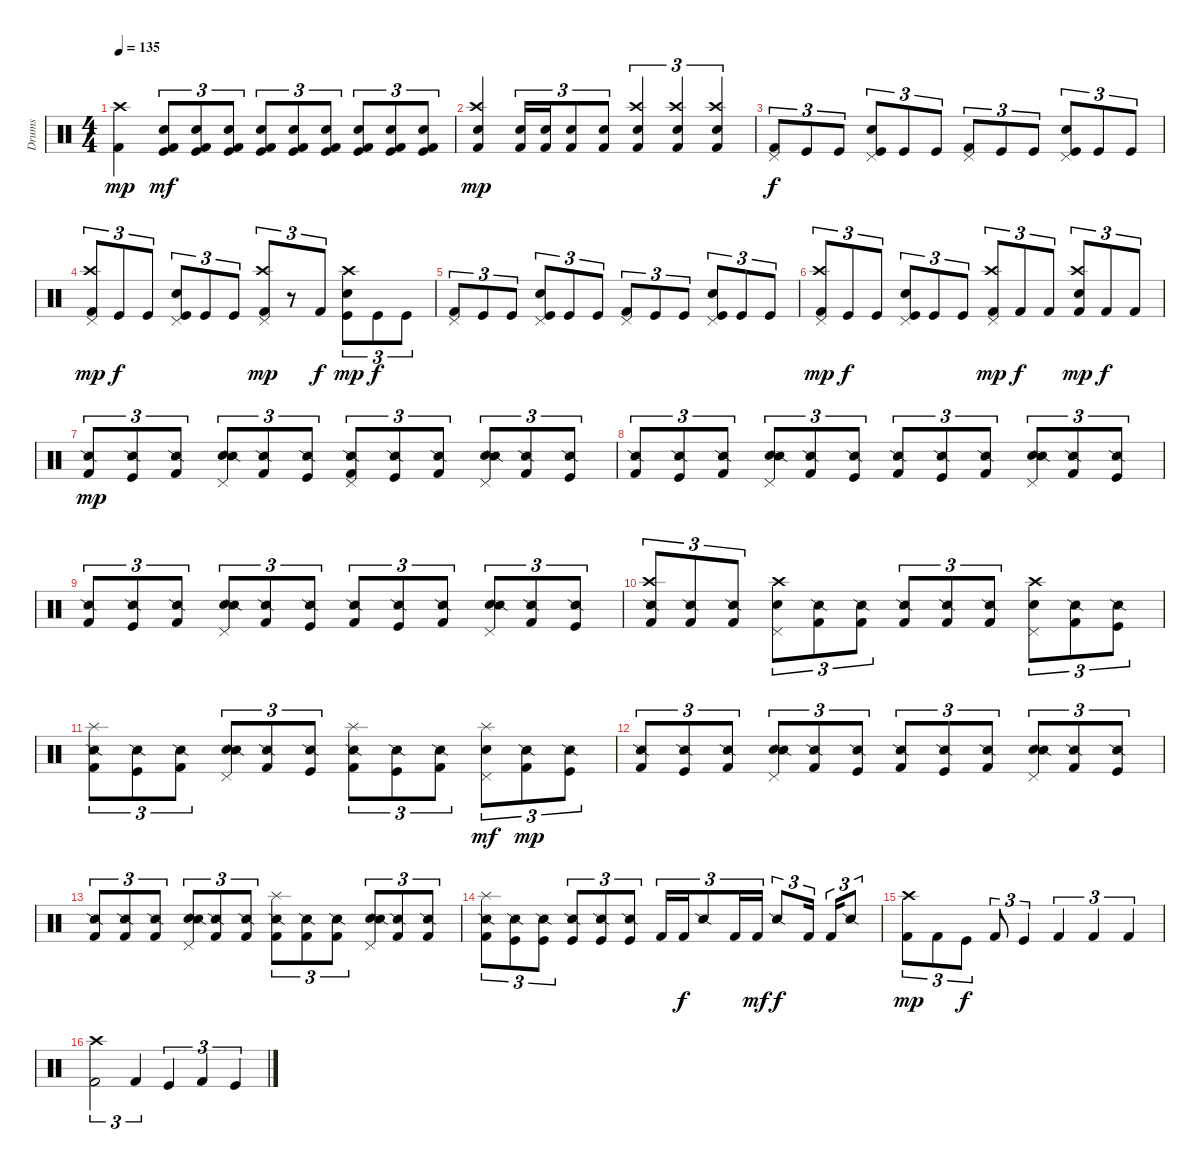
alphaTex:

\track ("Drums" "Drums") {instrument percussion}
\staff {score}
\articulation defaults
\ts (4 4)
\tempo 135
\clef neutral
\ks c
("Kick (hit) 2" "Crash high (hit)").4{dy mp} ("Kick (hit) 2" "Kick (hit)" "Electric Snare (hit)").8{tu (3 2) dy mf} ("Kick (hit) 2" "Kick (hit)" "Electric Snare (hit)").8{tu (3 2)} ("Kick (hit) 2" "Kick (hit)" "Electric Snare (hit)").8{tu (3 2)} ("Kick (hit) 2" "Kick (hit)" "Electric Snare (hit)").8{tu (3 2)} ("Kick (hit) 2" "Kick (hit)" "Electric Snare (hit)").8{tu (3 2)} ("Kick (hit) 2" "Kick (hit)" "Electric Snare (hit)").8{tu (3 2)} ("Kick (hit) 2" "Kick (hit)" "Electric Snare (hit)").8{tu (3 2)} ("Kick (hit) 2" "Kick (hit)" "Electric Snare (hit)").8{tu (3 2)} ("Kick (hit) 2" "Kick (hit)" "Electric Snare (hit)").8{tu (3 2)} |
("Kick (hit) 2" "Crash high (hit)" "Electric Snare (hit)").4{dy mp} ("Kick (hit) 2" "Electric Snare (hit)").16{tu (3 2)} ("Kick (hit) 2" "Electric Snare (hit)").16{tu (3 2)} ("Kick (hit) 2" "Electric Snare (hit)").8{tu (3 2)} ("Kick (hit) 2" "Electric Snare (hit)").8{tu (3 2)} ("Kick (hit) 2" "Crash high (hit)" "Electric Snare (hit)").4{tu (3 2)} ("Kick (hit) 2" "Crash high (hit)" "Electric Snare (hit)").4{tu (3 2)} ("Kick (hit) 2" "Crash high (hit)" "Electric Snare (hit)").4{tu (3 2)} |
("Kick (hit) 2" "Pedal Hi-Hat (hit)").8{tu (3 2) dy f} "Kick (hit)".8{tu (3 2)} "Kick (hit)".8{tu (3 2)} ("Kick (hit)" "Snare (hit) 2" "Pedal Hi-Hat (hit)").8{tu (3 2)} "Kick (hit)".8{tu (3 2)} "Kick (hit)".8{tu (3 2)} ("Kick (hit) 2" "Pedal Hi-Hat (hit)").8{tu (3 2)} "Kick (hit)".8{tu (3 2)} "Kick (hit)".8{tu (3 2)} ("Kick (hit)" "Snare (hit) 2" "Pedal Hi-Hat (hit)").8{tu (3 2)} "Kick (hit)".8{tu (3 2)} "Kick (hit)".8{tu (3 2)} |
("Kick (hit) 2" "Pedal Hi-Hat (hit)" "Crash high (hit)").8{tu (3 2) dy mp} "Kick (hit)".8{tu (3 2) dy f} "Kick (hit)".8{tu (3 2)} ("Kick (hit)" "Snare (hit) 2" "Pedal Hi-Hat (hit)").8{tu (3 2)} "Kick (hit)".8{tu (3 2)} "Kick (hit)".8{tu (3 2)} ("Kick (hit) 2" "Pedal Hi-Hat (hit)" "Crash high (hit)").8{tu (3 2) dy mp} r.8{tu (3 2)} "Kick (hit) 2".8{tu (3 2) dy f} ("Kick (hit)" "Snare (hit) 2" "Crash high (hit)").8{tu (3 2) dy mp} "Kick (hit)".8{tu (3 2) dy f} "Kick (hit)".8{tu (3 2)} |
("Kick (hit) 2" "Pedal Hi-Hat (hit)").8{tu (3 2)} "Kick (hit)".8{tu (3 2)} "Kick (hit)".8{tu (3 2)} ("Kick (hit)" "Snare (hit) 2" "Pedal Hi-Hat (hit)").8{tu (3 2)} "Kick (hit)".8{tu (3 2)} "Kick (hit)".8{tu (3 2)} ("Kick (hit) 2" "Pedal Hi-Hat (hit)").8{tu (3 2)} "Kick (hit)".8{tu (3 2)} "Kick (hit)".8{tu (3 2)} ("Kick (hit)" "Snare (hit) 2" "Pedal Hi-Hat (hit)").8{tu (3 2)} "Kick (hit)".8{tu (3 2)} "Kick (hit)".8{tu (3 2)} |
("Kick (hit) 2" "Pedal Hi-Hat (hit)" "Crash high (hit)").8{tu (3 2) dy mp} "Kick (hit)".8{tu (3 2) dy f} "Kick (hit)".8{tu (3 2)} ("Kick (hit)" "Snare (hit) 2" "Pedal Hi-Hat (hit)").8{tu (3 2)} "Kick (hit)".8{tu (3 2)} "Kick (hit)".8{tu (3 2)} ("Kick (hit) 2" "Pedal Hi-Hat (hit)" "Crash high (hit)").8{tu (3 2) dy mp} "Kick (hit) 2".8{tu (3 2) dy f} "Kick (hit) 2".8{tu (3 2)} ("Kick (hit) 2" "Snare (hit) 2" "Crash high (hit)").8{tu (3 2) dy mp} "Kick (hit) 2".8{tu (3 2) dy f} "Kick (hit) 2".8{tu (3 2)} |
("Kick (hit) 2" "Snare (side stick) 2").8{tu (3 2) dy mp} ("Kick (hit)" "Snare (side stick) 2").8{tu (3 2)} ("Kick (hit) 2" "Snare (side stick) 2").8{tu (3 2)} ("Electric Snare (hit)" "Pedal Hi-Hat (hit)" "Snare (side stick) 2").8{tu (3 2)} ("Kick (hit) 2" "Snare (side stick) 2").8{tu (3 2)} ("Kick (hit)" "Snare (side stick) 2").8{tu (3 2)} ("Kick (hit) 2" "Pedal Hi-Hat (hit)" "Snare (side stick) 2").8{tu (3 2)} ("Kick (hit)" "Snare (side stick) 2").8{tu (3 2)} ("Kick (hit) 2" "Snare (side stick) 2").8{tu (3 2)} ("Electric Snare (hit)" "Pedal Hi-Hat (hit)" "Snare (side stick) 2").8{tu (3 2)} ("Kick (hit) 2" "Snare (side stick) 2").8{tu (3 2)} ("Kick (hit)" "Snare (side stick) 2").8{tu (3 2)} |
("Kick (hit) 2" "Snare (side stick) 2").8{tu (3 2)} ("Kick (hit)" "Snare (side stick) 2").8{tu (3 2)} ("Kick (hit) 2" "Snare (side stick) 2").8{tu (3 2)} ("Electric Snare (hit)" "Pedal Hi-Hat (hit)" "Snare (side stick) 2").8{tu (3 2)} ("Kick (hit) 2" "Snare (side stick) 2").8{tu (3 2)} ("Kick (hit)" "Snare (side stick) 2").8{tu (3 2)} ("Kick (hit) 2" "Snare (side stick) 2").8{tu (3 2)} ("Kick (hit)" "Snare (side stick) 2").8{tu (3 2)} ("Kick (hit) 2" "Snare (side stick) 2").8{tu (3 2)} ("Electric Snare (hit)" "Pedal Hi-Hat (hit)" "Snare (side stick) 2").8{tu (3 2)} ("Kick (hit) 2" "Snare (side stick) 2").8{tu (3 2)} ("Kick (hit)" "Snare (side stick) 2").8{tu (3 2)} |
("Kick (hit) 2" "Snare (side stick) 2").8{tu (3 2)} ("Kick (hit)" "Snare (side stick) 2").8{tu (3 2)} ("Kick (hit) 2" "Snare (side stick) 2").8{tu (3 2)} ("Electric Snare (hit)" "Pedal Hi-Hat (hit)" "Snare (side stick) 2").8{tu (3 2)} ("Kick (hit) 2" "Snare (side stick) 2").8{tu (3 2)} ("Kick (hit)" "Snare (side stick) 2").8{tu (3 2)} ("Kick (hit) 2" "Snare (side stick) 2").8{tu (3 2)} ("Kick (hit)" "Snare (side stick) 2").8{tu (3 2)} ("Kick (hit) 2" "Snare (side stick) 2").8{tu (3 2)} ("Electric Snare (hit)" "Pedal Hi-Hat (hit)" "Snare (side stick) 2").8{tu (3 2)} ("Kick (hit) 2" "Snare (side stick) 2").8{tu (3 2)} ("Kick (hit)" "Snare (side stick) 2").8{tu (3 2)} |
("Kick (hit) 2" "Crash high (hit)" "Snare (side stick) 2").8{tu (3 2)} ("Kick (hit) 2" "Snare (side stick) 2").8{tu (3 2)} ("Kick (hit) 2" "Snare (side stick) 2").8{tu (3 2)} ("Electric Snare (hit)" "Pedal Hi-Hat (hit)" "Crash high (hit)").8{tu (3 2)} ("Kick (hit) 2" "Snare (side stick) 2").8{tu (3 2)} ("Kick (hit) 2" "Snare (side stick) 2").8{tu (3 2)} ("Kick (hit) 2" "Snare (side stick) 2").8{tu (3 2)} ("Kick (hit) 2" "Snare (side stick) 2").8{tu (3 2)} ("Kick (hit) 2" "Snare (side stick) 2").8{tu (3 2)} ("Electric Snare (hit)" "Pedal Hi-Hat (hit)" "Crash high (hit)").8{tu (3 2)} ("Kick (hit) 2" "Snare (side stick) 2").8{tu (3 2)} ("Kick (hit)" "Snare (side stick) 2").8{tu (3 2)} |
("Kick (hit) 2" "Splash (hit)" "Snare (side stick) 2").8{tu (3 2)} ("Kick (hit)" "Snare (side stick) 2").8{tu (3 2)} ("Kick (hit) 2" "Snare (side stick) 2").8{tu (3 2)} ("Electric Snare (hit)" "Pedal Hi-Hat (hit)" "Snare (side stick) 2").8{tu (3 2)} ("Kick (hit) 2" "Snare (side stick) 2").8{tu (3 2)} ("Kick (hit)" "Snare (side stick) 2").8{tu (3 2)} ("Kick (hit) 2" "Splash (hit)" "Snare (side stick) 2").8{tu (3 2)} ("Kick (hit)" "Snare (side stick) 2").8{tu (3 2)} ("Kick (hit) 2" "Snare (side stick) 2").8{tu (3 2)} ("Electric Snare (hit)" "Pedal Hi-Hat (hit)" "Splash (hit)").8{tu (3 2) dy mf} ("Kick (hit) 2" "Snare (side stick) 2").8{tu (3 2) dy mp} ("Kick (hit)" "Snare (side stick) 2").8{tu (3 2)} |
("Kick (hit) 2" "Snare (side stick) 2").8{tu (3 2)} ("Kick (hit)" "Snare (side stick) 2").8{tu (3 2)} ("Kick (hit) 2" "Snare (side stick) 2").8{tu (3 2)} ("Electric Snare (hit)" "Pedal Hi-Hat (hit)" "Snare (side stick) 2").8{tu (3 2)} ("Kick (hit) 2" "Snare (side stick) 2").8{tu (3 2)} ("Kick (hit)" "Snare (side stick) 2").8{tu (3 2)} ("Kick (hit) 2" "Snare (side stick) 2").8{tu (3 2)} ("Kick (hit)" "Snare (side stick) 2").8{tu (3 2)} ("Kick (hit) 2" "Snare (side stick) 2").8{tu (3 2)} ("Electric Snare (hit)" "Pedal Hi-Hat (hit)" "Snare (side stick) 2").8{tu (3 2)} ("Kick (hit) 2" "Snare (side stick) 2").8{tu (3 2)} ("Kick (hit)" "Snare (side stick) 2").8{tu (3 2)} |
("Kick (hit) 2" "Snare (side stick) 2").8{tu (3 2)} ("Kick (hit) 2" "Snare (side stick) 2").8{tu (3 2)} ("Kick (hit) 2" "Snare (side stick) 2").8{tu (3 2)} ("Electric Snare (hit)" "Pedal Hi-Hat (hit)" "Snare (side stick) 2").8{tu (3 2)} ("Kick (hit) 2" "Snare (side stick) 2").8{tu (3 2)} ("Kick (hit) 2" "Snare (side stick) 2").8{tu (3 2)} ("Kick (hit) 2" "Splash (hit)" "Snare (side stick) 2").8{tu (3 2)} ("Kick (hit) 2" "Snare (side stick) 2").8{tu (3 2)} ("Kick (hit) 2" "Snare (side stick) 2").8{tu (3 2)} ("Electric Snare (hit)" "Pedal Hi-Hat (hit)" "Snare (side stick) 2").8{tu (3 2)} ("Kick (hit) 2" "Snare (side stick) 2").8{tu (3 2)} ("Kick (hit) 2" "Snare (side stick) 2").8{tu (3 2)} |
("Kick (hit) 2" "Splash (hit)" "Snare (side stick) 2").8{tu (3 2)} ("Kick (hit)" "Snare (side stick) 2").8{tu (3 2)} ("Kick (hit)" "Snare (side stick) 2").8{tu (3 2)} ("Kick (hit)" "Snare (side stick) 2").8{tu (3 2)} ("Kick (hit)" "Snare (side stick) 2").8{tu (3 2)} ("Kick (hit)" "Snare (side stick) 2").8{tu (3 2)} "Kick (hit) 2".16{tu (3 2)} "Kick (hit) 2".16{tu (3 2) dy f} "Snare (side stick) 2".8{tu (3 2)} "Kick (hit) 2".16{tu (3 2)} "Kick (hit) 2".16{tu (3 2) dy mf} "Snare (side stick) 2".8{tu (3 2) dy f} "Kick (hit) 2".16{tu (3 2)} "Kick (hit) 2".16{tu (3 2)} "Snare (side stick) 2".8{tu (3 2)} |
("Kick (hit) 2" "Crash high (hit)").8{tu (3 2) dy mp} "Kick (hit) 2".8{tu (3 2)} "Kick (hit)".8{tu (3 2) dy f} "Kick (hit) 2".8{tu (3 2)} "Kick (hit)".4{tu (3 2)} "Kick (hit) 2".4{tu (3 2)} "Kick (hit) 2".4{tu (3 2)} "Kick (hit) 2".4{tu (3 2)} |
("Kick (hit) 2" "Crash high (hit)").2{tu (3 2)} "Kick (hit) 2".4{tu (3 2)} "Kick (hit)".4{tu (3 2)} "Kick (hit) 2".4{tu (3 2)} "Kick (hit)".4{tu (3 2)}
